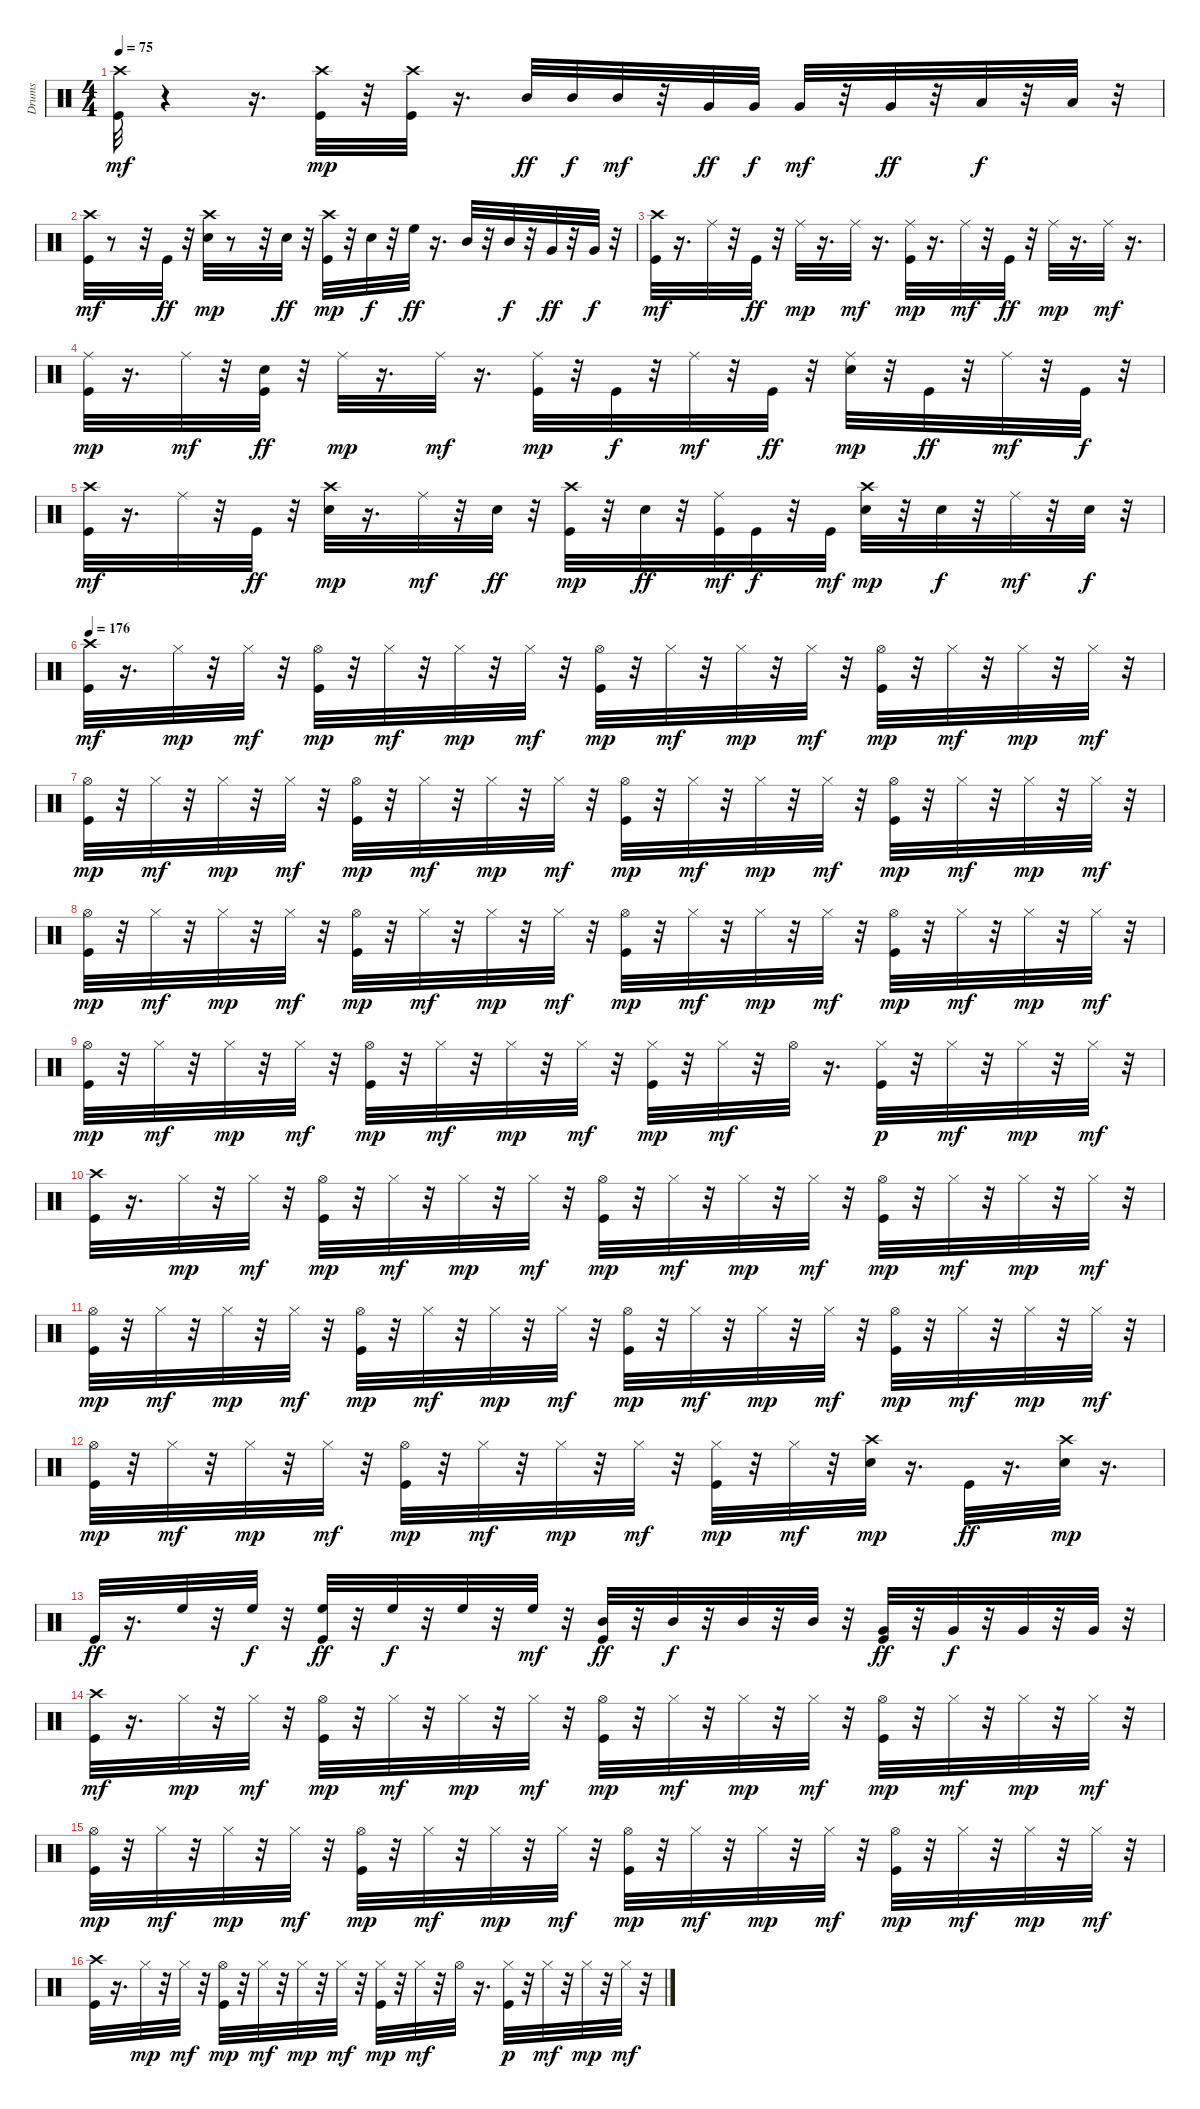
\track ("Drums" "Drums") {instrument percussion}
\staff {score}
\articulation defaults
\ts (4 4)
\tempo 75
\clef neutral
\ks c
("Kick (hit)" "Crash high (hit)").32{dy mf} r.4 r.16{d} ("Kick (hit)" "Crash high (hit)").32{dy mp} r.32 ("Kick (hit)" "Crash high (hit)").32 r.16{d} "Mid Tom (hit)".32{dy ff} "Mid Tom (hit)".32{dy f} "Mid Tom (hit)".32{dy mf} r.32 "Very Low Tom (hit)".32{dy ff} "Very Low Tom (hit)".32{dy f} "Very Low Tom (hit)".32{dy mf} r.32 "Very Low Tom (hit)".32{dy ff} r.32 "Low Floor Tom (hit)".32{dy f} r.32 "Low Floor Tom (hit)".32 r.32 |
("Kick (hit)" "Crash high (hit)").32{dy mf} r.8 r.32 "Kick (hit)".32{dy ff} r.32 ("Snare (hit) 2" "Crash high (hit)").32{dy mp} r.8 r.32 "Snare (hit) 2".32{dy ff} r.32 ("Kick (hit)" "Crash high (hit)").32{dy mp} r.32 "Snare (hit) 2".32{dy f} r.32 "High Floor Tom (hit)".32{dy ff} r.16{d} "Mid Tom (hit)".32 r.32 "Mid Tom (hit)".32{dy f} r.32 "Very Low Tom (hit)".32{dy ff} r.32 "Very Low Tom (hit)".32{dy f} r.32 |
("Kick (hit)" "Crash high (hit)").32{dy mf} r.16{d} "Ride (middle)".32 r.32 "Kick (hit)".32{dy ff} r.32 "Ride (middle)".32{dy mp} r.16{d} "Ride (middle)".32{dy mf} r.16{d} ("Kick (hit)" "Ride (middle)").32{dy mp} r.16{d} "Ride (middle)".32{dy mf} r.32 "Kick (hit)".32{dy ff} r.32 "Ride (middle)".32{dy mp} r.16{d} "Ride (middle)".32{dy mf} r.16{d} |
("Kick (hit)" "Ride (middle)").32{dy mp} r.16{d} "Ride (middle)".32{dy mf} r.32 ("Kick (hit)" "Snare (hit) 2").32{dy ff} r.32 "Ride (middle)".32{dy mp} r.16{d} "Ride (middle)".32{dy mf} r.16{d} ("Kick (hit)" "Ride (middle)").32{dy mp} r.32 "Kick (hit)".32{dy f} r.32 "Ride (middle)".32{dy mf} r.32 "Kick (hit)".32{dy ff} r.32 ("Snare (hit) 2" "Ride (middle)").32{dy mp} r.32 "Kick (hit)".32{dy ff} r.32 "Ride (middle)".32{dy mf} r.32 "Kick (hit)".32{dy f} r.32 |
("Kick (hit)" "Crash high (hit)").32{dy mf} r.16{d} "Ride (middle)".32 r.32 "Kick (hit)".32{dy ff} r.32 ("Snare (hit) 2" "Crash high (hit)").32{dy mp} r.16{d} "Ride (middle)".32{dy mf} r.32 "Snare (hit) 2".32{dy ff} r.32 ("Kick (hit)" "Crash high (hit)").32{dy mp} r.32 "Snare (hit) 2".32{dy ff} r.32 ("Kick (hit)" "Ride (middle)").32{dy mf} "Kick (hit)".32{dy f} r.32 "Kick (hit)".32{dy mf} ("Snare (hit) 2" "Crash high (hit)").32{dy mp} r.32 "Snare (hit) 2".32{dy f} r.32 "Ride (middle)".32{dy mf} r.32 "Snare (hit) 2".32{dy f} r.32 |
\tempo 176
("Kick (hit)" "Crash high (hit)").32{dy mf} r.16{d} "Hi-Hat (closed)".32{dy mp} r.32 "Hi-Hat (closed)".32{dy mf} r.32 ("Kick (hit)" "Hi-Hat (open)").32{dy mp} r.32 "Hi-Hat (closed)".32{dy mf} r.32 "Hi-Hat (closed)".32{dy mp} r.32 "Hi-Hat (closed)".32{dy mf} r.32 ("Kick (hit)" "Hi-Hat (open)").32{dy mp} r.32 "Hi-Hat (closed)".32{dy mf} r.32 "Hi-Hat (closed)".32{dy mp} r.32 "Hi-Hat (closed)".32{dy mf} r.32 ("Kick (hit)" "Hi-Hat (open)").32{dy mp} r.32 "Hi-Hat (closed)".32{dy mf} r.32 "Hi-Hat (closed)".32{dy mp} r.32 "Hi-Hat (closed)".32{dy mf} r.32 |
("Kick (hit)" "Hi-Hat (open)").32{dy mp} r.32 "Hi-Hat (closed)".32{dy mf} r.32 "Hi-Hat (closed)".32{dy mp} r.32 "Hi-Hat (closed)".32{dy mf} r.32 ("Kick (hit)" "Hi-Hat (open)").32{dy mp} r.32 "Hi-Hat (closed)".32{dy mf} r.32 "Hi-Hat (closed)".32{dy mp} r.32 "Hi-Hat (closed)".32{dy mf} r.32 ("Kick (hit)" "Hi-Hat (open)").32{dy mp} r.32 "Hi-Hat (closed)".32{dy mf} r.32 "Hi-Hat (closed)".32{dy mp} r.32 "Hi-Hat (closed)".32{dy mf} r.32 ("Kick (hit)" "Hi-Hat (open)").32{dy mp} r.32 "Hi-Hat (closed)".32{dy mf} r.32 "Hi-Hat (closed)".32{dy mp} r.32 "Hi-Hat (closed)".32{dy mf} r.32 |
("Kick (hit)" "Hi-Hat (open)").32{dy mp} r.32 "Hi-Hat (closed)".32{dy mf} r.32 "Hi-Hat (closed)".32{dy mp} r.32 "Hi-Hat (closed)".32{dy mf} r.32 ("Kick (hit)" "Hi-Hat (open)").32{dy mp} r.32 "Hi-Hat (closed)".32{dy mf} r.32 "Hi-Hat (closed)".32{dy mp} r.32 "Hi-Hat (closed)".32{dy mf} r.32 ("Kick (hit)" "Hi-Hat (open)").32{dy mp} r.32 "Hi-Hat (closed)".32{dy mf} r.32 "Hi-Hat (closed)".32{dy mp} r.32 "Hi-Hat (closed)".32{dy mf} r.32 ("Kick (hit)" "Hi-Hat (open)").32{dy mp} r.32 "Hi-Hat (closed)".32{dy mf} r.32 "Hi-Hat (closed)".32{dy mp} r.32 "Hi-Hat (closed)".32{dy mf} r.32 |
("Kick (hit)" "Hi-Hat (open)").32{dy mp} r.32 "Hi-Hat (closed)".32{dy mf} r.32 "Hi-Hat (closed)".32{dy mp} r.32 "Hi-Hat (closed)".32{dy mf} r.32 ("Kick (hit)" "Hi-Hat (open)").32{dy mp} r.32 "Hi-Hat (closed)".32{dy mf} r.32 "Hi-Hat (closed)".32{dy mp} r.32 "Hi-Hat (closed)".32{dy mf} r.32 ("Kick (hit)" "Hi-Hat (closed)").32{dy mp} r.32 "Hi-Hat (closed)".32{dy mf} r.32 "Hi-Hat (open)".32 r.16{d} ("Kick (hit)" "Hi-Hat (closed)").32{dy p} r.32 "Hi-Hat (closed)".32{dy mf} r.32 "Hi-Hat (closed)".32{dy mp} r.32 "Hi-Hat (closed)".32{dy mf} r.32 |
("Kick (hit)" "Crash high (hit)").32 r.16{d} "Hi-Hat (closed)".32{dy mp} r.32 "Hi-Hat (closed)".32{dy mf} r.32 ("Kick (hit)" "Hi-Hat (open)").32{dy mp} r.32 "Hi-Hat (closed)".32{dy mf} r.32 "Hi-Hat (closed)".32{dy mp} r.32 "Hi-Hat (closed)".32{dy mf} r.32 ("Kick (hit)" "Hi-Hat (open)").32{dy mp} r.32 "Hi-Hat (closed)".32{dy mf} r.32 "Hi-Hat (closed)".32{dy mp} r.32 "Hi-Hat (closed)".32{dy mf} r.32 ("Kick (hit)" "Hi-Hat (open)").32{dy mp} r.32 "Hi-Hat (closed)".32{dy mf} r.32 "Hi-Hat (closed)".32{dy mp} r.32 "Hi-Hat (closed)".32{dy mf} r.32 |
("Kick (hit)" "Hi-Hat (open)").32{dy mp} r.32 "Hi-Hat (closed)".32{dy mf} r.32 "Hi-Hat (closed)".32{dy mp} r.32 "Hi-Hat (closed)".32{dy mf} r.32 ("Kick (hit)" "Hi-Hat (open)").32{dy mp} r.32 "Hi-Hat (closed)".32{dy mf} r.32 "Hi-Hat (closed)".32{dy mp} r.32 "Hi-Hat (closed)".32{dy mf} r.32 ("Kick (hit)" "Hi-Hat (open)").32{dy mp} r.32 "Hi-Hat (closed)".32{dy mf} r.32 "Hi-Hat (closed)".32{dy mp} r.32 "Hi-Hat (closed)".32{dy mf} r.32 ("Kick (hit)" "Hi-Hat (open)").32{dy mp} r.32 "Hi-Hat (closed)".32{dy mf} r.32 "Hi-Hat (closed)".32{dy mp} r.32 "Hi-Hat (closed)".32{dy mf} r.32 |
("Kick (hit)" "Hi-Hat (open)").32{dy mp} r.32 "Hi-Hat (closed)".32{dy mf} r.32 "Hi-Hat (closed)".32{dy mp} r.32 "Hi-Hat (closed)".32{dy mf} r.32 ("Kick (hit)" "Hi-Hat (open)").32{dy mp} r.32 "Hi-Hat (closed)".32{dy mf} r.32 "Hi-Hat (closed)".32{dy mp} r.32 "Hi-Hat (closed)".32{dy mf} r.32 ("Kick (hit)" "Hi-Hat (closed)").32{dy mp} r.32 "Hi-Hat (closed)".32{dy mf} r.32 ("Snare (hit) 2" "Crash high (hit)").32{dy mp} r.16{d} "Kick (hit)".32{dy ff} r.16{d} ("Snare (hit) 2" "Crash high (hit)").32{dy mp} r.16{d} |
"Kick (hit)".32{dy ff} r.16{d} "High Floor Tom (hit)".32 r.32 "High Floor Tom (hit)".32{dy f} r.32 ("Kick (hit)" "High Floor Tom (hit)").32{dy ff} r.32 "High Floor Tom (hit)".32{dy f} r.32 "High Floor Tom (hit)".32 r.32 "High Floor Tom (hit)".32{dy mf} r.32 ("Kick (hit)" "Mid Tom (hit)").32{dy ff} r.32 "Mid Tom (hit)".32{dy f} r.32 "Mid Tom (hit)".32 r.32 "Mid Tom (hit)".32 r.32 ("Kick (hit)" "Very Low Tom (hit)").32{dy ff} r.32 "Very Low Tom (hit)".32{dy f} r.32 "Very Low Tom (hit)".32 r.32 "Very Low Tom (hit)".32 r.32 |
("Kick (hit)" "Crash high (hit)").32{dy mf} r.16{d} "Hi-Hat (closed)".32{dy mp} r.32 "Hi-Hat (closed)".32{dy mf} r.32 ("Kick (hit)" "Hi-Hat (open)").32{dy mp} r.32 "Hi-Hat (closed)".32{dy mf} r.32 "Hi-Hat (closed)".32{dy mp} r.32 "Hi-Hat (closed)".32{dy mf} r.32 ("Kick (hit)" "Hi-Hat (open)").32{dy mp} r.32 "Hi-Hat (closed)".32{dy mf} r.32 "Hi-Hat (closed)".32{dy mp} r.32 "Hi-Hat (closed)".32{dy mf} r.32 ("Kick (hit)" "Hi-Hat (open)").32{dy mp} r.32 "Hi-Hat (closed)".32{dy mf} r.32 "Hi-Hat (closed)".32{dy mp} r.32 "Hi-Hat (closed)".32{dy mf} r.32 |
("Kick (hit)" "Hi-Hat (open)").32{dy mp} r.32 "Hi-Hat (closed)".32{dy mf} r.32 "Hi-Hat (closed)".32{dy mp} r.32 "Hi-Hat (closed)".32{dy mf} r.32 ("Kick (hit)" "Hi-Hat (open)").32{dy mp} r.32 "Hi-Hat (closed)".32{dy mf} r.32 "Hi-Hat (closed)".32{dy mp} r.32 "Hi-Hat (closed)".32{dy mf} r.32 ("Kick (hit)" "Hi-Hat (open)").32{dy mp} r.32 "Hi-Hat (closed)".32{dy mf} r.32 "Hi-Hat (closed)".32{dy mp} r.32 "Hi-Hat (closed)".32{dy mf} r.32 ("Kick (hit)" "Hi-Hat (open)").32{dy mp} r.32 "Hi-Hat (closed)".32{dy mf} r.32 "Hi-Hat (closed)".32{dy mp} r.32 "Hi-Hat (closed)".32{dy mf} r.32 |
("Kick (hit)" "Crash high (hit)").32 r.16{d} "Hi-Hat (closed)".32{dy mp} r.32 "Hi-Hat (closed)".32{dy mf} r.32 ("Kick (hit)" "Hi-Hat (open)").32{dy mp} r.32 "Hi-Hat (closed)".32{dy mf} r.32 "Hi-Hat (closed)".32{dy mp} r.32 "Hi-Hat (closed)".32{dy mf} r.32 ("Kick (hit)" "Hi-Hat (closed)").32{dy mp} r.32 "Hi-Hat (closed)".32{dy mf} r.32 "Hi-Hat (open)".32 r.16{d} ("Kick (hit)" "Hi-Hat (closed)").32{dy p} r.32 "Hi-Hat (closed)".32{dy mf} r.32 "Hi-Hat (closed)".32{dy mp} r.32 "Hi-Hat (closed)".32{dy mf} r.32
